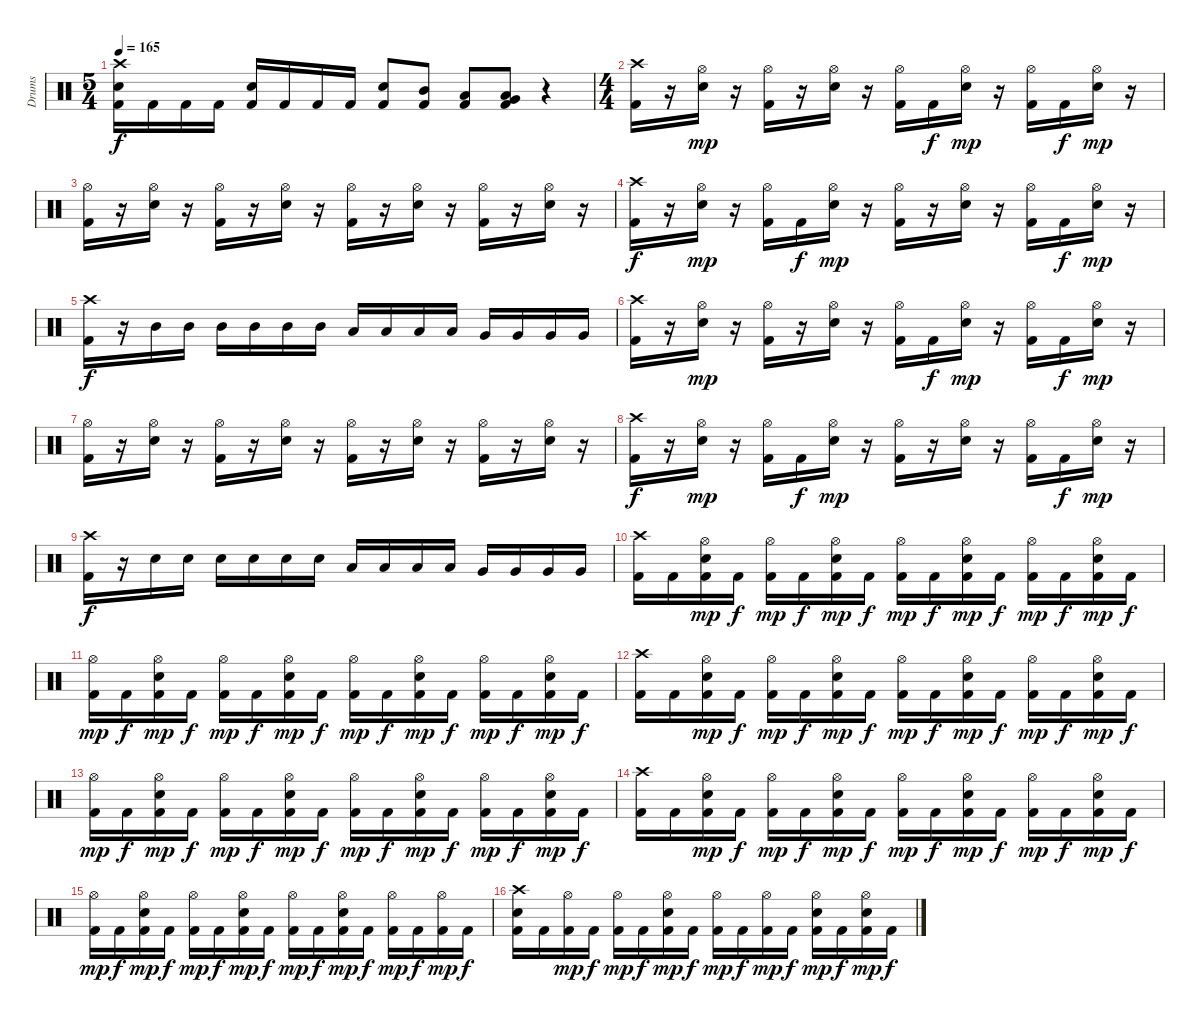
\track ("Drums" "Drums") {instrument percussion}
\staff {score}
\articulation defaults
\ts (5 4)
\tempo 165
\clef neutral
\ks c
("Crash high (hit)" "Snare (hit) 2" "Kick (hit) 2").16{dy f} "Kick (hit) 2".16 "Kick (hit) 2".16 "Kick (hit) 2".16 ("Snare (hit) 2" "Kick (hit) 2").16 "Kick (hit) 2".16 "Kick (hit) 2".16 "Kick (hit) 2".16 ("Snare (hit) 2" "Kick (hit) 2").8 ("Mid Tom (hit)" "Kick (hit) 2").8 ("Low Tom (hit)" "Kick (hit) 2").8 ("Low Tom (hit)" "Very Low Tom (hit)" "Kick (hit) 2").8 r.4 |
\ts (4 4)
("Crash high (hit)" "Kick (hit) 2").16 r.16 ("Hi-Hat (open)" "Snare (hit) 2").16{dy mp} r.16 ("Hi-Hat (open)" "Kick (hit) 2").16 r.16 ("Hi-Hat (open)" "Snare (hit) 2").16 r.16 ("Hi-Hat (open)" "Kick (hit) 2").16 "Kick (hit) 2".16{dy f} ("Hi-Hat (open)" "Snare (hit) 2").16{dy mp} r.16 ("Hi-Hat (open)" "Kick (hit) 2").16 "Kick (hit) 2".16{dy f} ("Hi-Hat (open)" "Snare (hit) 2").16{dy mp} r.16 |
("Hi-Hat (open)" "Kick (hit) 2").16 r.16 ("Hi-Hat (open)" "Snare (hit) 2").16 r.16 ("Hi-Hat (open)" "Kick (hit) 2").16 r.16 ("Hi-Hat (open)" "Snare (hit) 2").16 r.16 ("Hi-Hat (open)" "Kick (hit) 2").16 r.16 ("Hi-Hat (open)" "Snare (hit) 2").16 r.16 ("Hi-Hat (open)" "Kick (hit) 2").16 r.16 ("Hi-Hat (open)" "Snare (hit) 2").16 r.16 |
("Crash high (hit)" "Kick (hit) 2").16{dy f} r.16 ("Hi-Hat (open)" "Snare (hit) 2").16{dy mp} r.16 ("Hi-Hat (open)" "Kick (hit) 2").16 "Kick (hit) 2".16{dy f} ("Hi-Hat (open)" "Snare (hit) 2").16{dy mp} r.16 ("Hi-Hat (open)" "Kick (hit) 2").16 r.16 ("Hi-Hat (open)" "Snare (hit) 2").16 r.16 ("Hi-Hat (open)" "Kick (hit) 2").16 "Kick (hit) 2".16{dy f} ("Hi-Hat (open)" "Snare (hit) 2").16{dy mp} r.16 |
("Crash high (hit)" "Kick (hit) 2").16{dy f} r.16 "Mid Tom (hit)".16 "Mid Tom (hit)".16 "Mid Tom (hit)".16 "Mid Tom (hit)".16 "Mid Tom (hit)".16 "Mid Tom (hit)".16 "Low Tom (hit)".16 "Low Tom (hit)".16 "Low Tom (hit)".16 "Low Tom (hit)".16 "Very Low Tom (hit)".16 "Very Low Tom (hit)".16 "Very Low Tom (hit)".16 "Very Low Tom (hit)".16 |
("Crash high (hit)" "Kick (hit) 2").16 r.16 ("Hi-Hat (open)" "Snare (hit) 2").16{dy mp} r.16 ("Hi-Hat (open)" "Kick (hit) 2").16 r.16 ("Hi-Hat (open)" "Snare (hit) 2").16 r.16 ("Hi-Hat (open)" "Kick (hit) 2").16 "Kick (hit) 2".16{dy f} ("Hi-Hat (open)" "Snare (hit) 2").16{dy mp} r.16 ("Hi-Hat (open)" "Kick (hit) 2").16 "Kick (hit) 2".16{dy f} ("Hi-Hat (open)" "Snare (hit) 2").16{dy mp} r.16 |
("Hi-Hat (open)" "Kick (hit) 2").16 r.16 ("Hi-Hat (open)" "Snare (hit) 2").16 r.16 ("Hi-Hat (open)" "Kick (hit) 2").16 r.16 ("Hi-Hat (open)" "Snare (hit) 2").16 r.16 ("Hi-Hat (open)" "Kick (hit) 2").16 r.16 ("Hi-Hat (open)" "Snare (hit) 2").16 r.16 ("Hi-Hat (open)" "Kick (hit) 2").16 r.16 ("Hi-Hat (open)" "Snare (hit) 2").16 r.16 |
("Crash high (hit)" "Kick (hit) 2").16{dy f} r.16 ("Hi-Hat (open)" "Snare (hit) 2").16{dy mp} r.16 ("Hi-Hat (open)" "Kick (hit) 2").16 "Kick (hit) 2".16{dy f} ("Hi-Hat (open)" "Snare (hit) 2").16{dy mp} r.16 ("Hi-Hat (open)" "Kick (hit) 2").16 r.16 ("Hi-Hat (open)" "Snare (hit) 2").16 r.16 ("Hi-Hat (open)" "Kick (hit) 2").16 "Kick (hit) 2".16{dy f} ("Hi-Hat (open)" "Snare (hit) 2").16{dy mp} r.16 |
("Crash high (hit)" "Kick (hit) 2").16{dy f} r.16 "Snare (hit) 2".16 "Snare (hit) 2".16 "Snare (hit) 2".16 "Snare (hit) 2".16 "Snare (hit) 2".16 "Snare (hit) 2".16 "Low Tom (hit)".16 "Low Tom (hit)".16 "Low Tom (hit)".16 "Low Tom (hit)".16 "Very Low Tom (hit)".16 "Very Low Tom (hit)".16 "Very Low Tom (hit)".16 "Very Low Tom (hit)".16 |
("Crash high (hit)" "Kick (hit) 2").16 "Kick (hit) 2".16 ("Hi-Hat (open)" "Snare (hit) 2" "Kick (hit) 2").16{dy mp} "Kick (hit) 2".16{dy f} ("Hi-Hat (open)" "Kick (hit) 2").16{dy mp} "Kick (hit) 2".16{dy f} ("Hi-Hat (open)" "Snare (hit) 2" "Kick (hit) 2").16{dy mp} "Kick (hit) 2".16{dy f} ("Hi-Hat (open)" "Kick (hit) 2").16{dy mp} "Kick (hit) 2".16{dy f} ("Hi-Hat (open)" "Snare (hit) 2" "Kick (hit) 2").16{dy mp} "Kick (hit) 2".16{dy f} ("Hi-Hat (open)" "Kick (hit) 2").16{dy mp} "Kick (hit) 2".16{dy f} ("Hi-Hat (open)" "Snare (hit) 2" "Kick (hit) 2").16{dy mp} "Kick (hit) 2".16{dy f} |
("Hi-Hat (open)" "Kick (hit) 2").16{dy mp} "Kick (hit) 2".16{dy f} ("Hi-Hat (open)" "Snare (hit) 2" "Kick (hit) 2").16{dy mp} "Kick (hit) 2".16{dy f} ("Hi-Hat (open)" "Kick (hit) 2").16{dy mp} "Kick (hit) 2".16{dy f} ("Hi-Hat (open)" "Snare (hit) 2" "Kick (hit) 2").16{dy mp} "Kick (hit) 2".16{dy f} ("Hi-Hat (open)" "Kick (hit) 2").16{dy mp} "Kick (hit) 2".16{dy f} ("Hi-Hat (open)" "Snare (hit) 2" "Kick (hit) 2").16{dy mp} "Kick (hit) 2".16{dy f} ("Hi-Hat (open)" "Kick (hit) 2").16{dy mp} "Kick (hit) 2".16{dy f} ("Hi-Hat (open)" "Snare (hit) 2" "Kick (hit) 2").16{dy mp} "Kick (hit) 2".16{dy f} |
("Crash high (hit)" "Kick (hit) 2").16 "Kick (hit) 2".16 ("Hi-Hat (open)" "Snare (hit) 2" "Kick (hit) 2").16{dy mp} "Kick (hit) 2".16{dy f} ("Hi-Hat (open)" "Kick (hit) 2").16{dy mp} "Kick (hit) 2".16{dy f} ("Hi-Hat (open)" "Snare (hit) 2" "Kick (hit) 2").16{dy mp} "Kick (hit) 2".16{dy f} ("Hi-Hat (open)" "Kick (hit) 2").16{dy mp} "Kick (hit) 2".16{dy f} ("Hi-Hat (open)" "Snare (hit) 2" "Kick (hit) 2").16{dy mp} "Kick (hit) 2".16{dy f} ("Hi-Hat (open)" "Kick (hit) 2").16{dy mp} "Kick (hit) 2".16{dy f} ("Hi-Hat (open)" "Snare (hit) 2" "Kick (hit) 2").16{dy mp} "Kick (hit) 2".16{dy f} |
("Hi-Hat (open)" "Kick (hit) 2").16{dy mp} "Kick (hit) 2".16{dy f} ("Hi-Hat (open)" "Snare (hit) 2" "Kick (hit) 2").16{dy mp} "Kick (hit) 2".16{dy f} ("Hi-Hat (open)" "Kick (hit) 2").16{dy mp} "Kick (hit) 2".16{dy f} ("Hi-Hat (open)" "Snare (hit) 2" "Kick (hit) 2").16{dy mp} "Kick (hit) 2".16{dy f} ("Hi-Hat (open)" "Kick (hit) 2").16{dy mp} "Kick (hit) 2".16{dy f} ("Hi-Hat (open)" "Snare (hit) 2" "Kick (hit) 2").16{dy mp} "Kick (hit) 2".16{dy f} ("Hi-Hat (open)" "Kick (hit) 2").16{dy mp} "Kick (hit) 2".16{dy f} ("Hi-Hat (open)" "Snare (hit) 2" "Kick (hit) 2").16{dy mp} "Kick (hit) 2".16{dy f} |
("Crash high (hit)" "Kick (hit) 2").16 "Kick (hit) 2".16 ("Hi-Hat (open)" "Snare (hit) 2" "Kick (hit) 2").16{dy mp} "Kick (hit) 2".16{dy f} ("Hi-Hat (open)" "Kick (hit) 2").16{dy mp} "Kick (hit) 2".16{dy f} ("Hi-Hat (open)" "Snare (hit) 2" "Kick (hit) 2").16{dy mp} "Kick (hit) 2".16{dy f} ("Hi-Hat (open)" "Kick (hit) 2").16{dy mp} "Kick (hit) 2".16{dy f} ("Hi-Hat (open)" "Snare (hit) 2" "Kick (hit) 2").16{dy mp} "Kick (hit) 2".16{dy f} ("Hi-Hat (open)" "Kick (hit) 2").16{dy mp} "Kick (hit) 2".16{dy f} ("Hi-Hat (open)" "Snare (hit) 2" "Kick (hit) 2").16{dy mp} "Kick (hit) 2".16{dy f} |
("Hi-Hat (open)" "Kick (hit) 2").16{dy mp} "Kick (hit) 2".16{dy f} ("Hi-Hat (open)" "Snare (hit) 2" "Kick (hit) 2").16{dy mp} "Kick (hit) 2".16{dy f} ("Hi-Hat (open)" "Kick (hit) 2").16{dy mp} "Kick (hit) 2".16{dy f} ("Hi-Hat (open)" "Snare (hit) 2" "Kick (hit) 2").16{dy mp} "Kick (hit) 2".16{dy f} ("Hi-Hat (open)" "Kick (hit) 2").16{dy mp} "Kick (hit) 2".16{dy f} ("Hi-Hat (open)" "Snare (hit) 2" "Kick (hit) 2").16{dy mp} "Kick (hit) 2".16{dy f} ("Hi-Hat (open)" "Kick (hit) 2").16{dy mp} "Kick (hit) 2".16{dy f} ("Hi-Hat (open)" "Kick (hit) 2").16{dy mp} "Kick (hit) 2".16{dy f} |
("Crash high (hit)" "Snare (hit) 2" "Kick (hit) 2").16 "Kick (hit) 2".16 ("Hi-Hat (open)" "Kick (hit) 2").16{dy mp} "Kick (hit) 2".16{dy f} ("Hi-Hat (open)" "Kick (hit) 2").16{dy mp} "Kick (hit) 2".16{dy f} ("Hi-Hat (open)" "Snare (hit) 2" "Kick (hit) 2").16{dy mp} "Kick (hit) 2".16{dy f} ("Hi-Hat (open)" "Kick (hit) 2").16{dy mp} "Kick (hit) 2".16{dy f} ("Hi-Hat (open)" "Kick (hit) 2").16{dy mp} "Kick (hit) 2".16{dy f} ("Hi-Hat (open)" "Snare (hit) 2" "Kick (hit) 2").16{dy mp} "Kick (hit) 2".16{dy f} ("Hi-Hat (open)" "Snare (hit) 2" "Kick (hit) 2").16{dy mp} "Kick (hit) 2".16{dy f}
